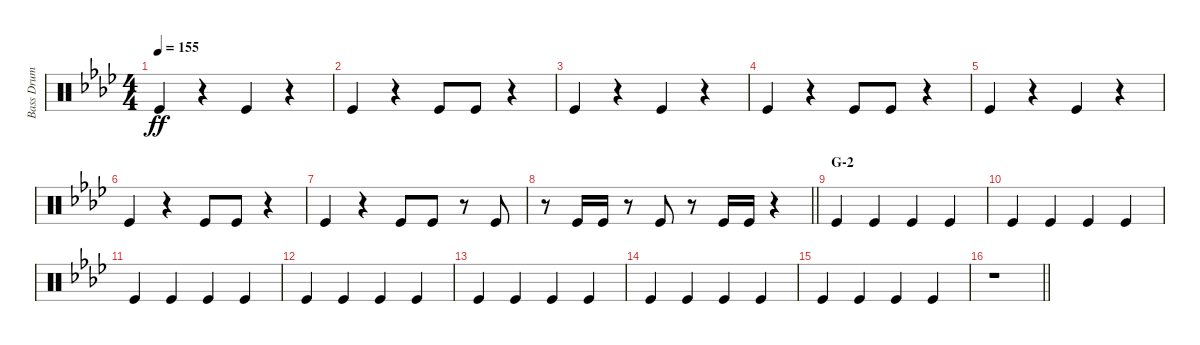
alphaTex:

\track ("Bass Drum" "Bass Drum") {instrument percussion}
\staff {score}
\articulation defaults
\ts (4 4)
\tempo 155
\clef neutral
\ks ab "Kick (hit)".4{dy ff}
r.4 "Kick (hit)".4 r.4 |
"Kick (hit)".4 r.4 "Kick (hit)".8 "Kick (hit)".8 r.4 |
"Kick (hit)".4 r.4 "Kick (hit)".4 r.4 |
"Kick (hit)".4 r.4 "Kick (hit)".8 "Kick (hit)".8 r.4 |
"Kick (hit)".4 r.4 "Kick (hit)".4 r.4 |
"Kick (hit)".4 r.4 "Kick (hit)".8 "Kick (hit)".8 r.4 |
"Kick (hit)".4 r.4 "Kick (hit)".8 "Kick (hit)".8 r.8 "Kick (hit)".8 |
\barLineRight lightlight
r.8 "Kick (hit)".16 "Kick (hit)".16 r.8 "Kick (hit)".8 r.8 "Kick (hit)".16 "Kick (hit)".16 r.4 |
\section ("" "G-2")
"Kick (hit)".4 "Kick (hit)".4 "Kick (hit)".4 "Kick (hit)".4 |
"Kick (hit)".4 "Kick (hit)".4 "Kick (hit)".4 "Kick (hit)".4 |
"Kick (hit)".4 "Kick (hit)".4 "Kick (hit)".4 "Kick (hit)".4 |
"Kick (hit)".4 "Kick (hit)".4 "Kick (hit)".4 "Kick (hit)".4 |
"Kick (hit)".4 "Kick (hit)".4 "Kick (hit)".4 "Kick (hit)".4 |
"Kick (hit)".4 "Kick (hit)".4 "Kick (hit)".4 "Kick (hit)".4 |
"Kick (hit)".4 "Kick (hit)".4 "Kick (hit)".4 "Kick (hit)".4 |
\barLineRight lightlight
r.1
